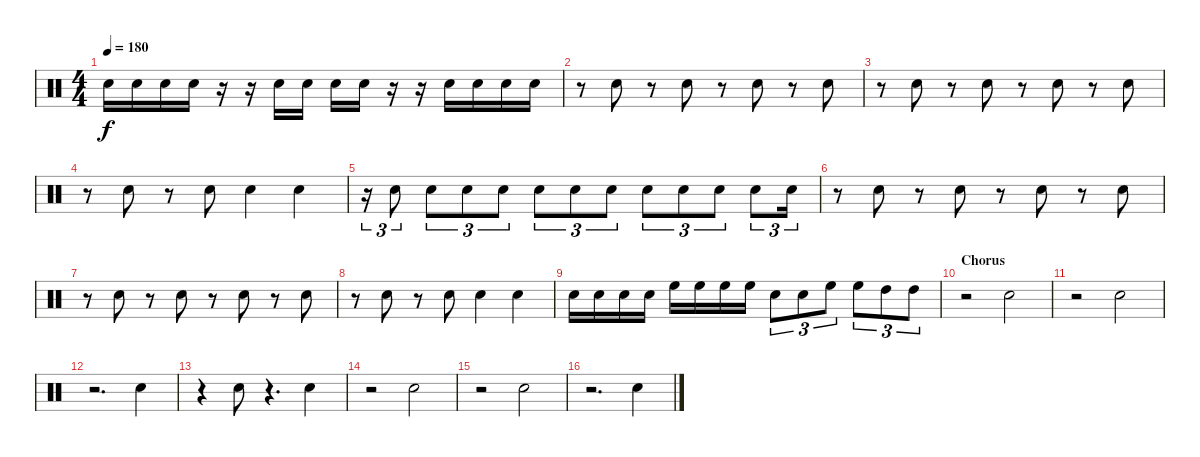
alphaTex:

\track "" {instrument percussion}
\staff {score}
\articulation defaults
\ts (4 4)
\tempo 180
\clef neutral
\ks c "Electric Snare (hit)".16{dy f} "Electric Snare (hit)".16 "Electric Snare (hit)".16 "Electric Snare (hit)".16
r.16 r.16 "Electric Snare (hit)".16 "Electric Snare (hit)".16 "Electric Snare (hit)".16 "Electric Snare (hit)".16 r.16 r.16 "Electric Snare (hit)".16 "Electric Snare (hit)".16 "Electric Snare (hit)".16 "Electric Snare (hit)".16 |
r.8 "Electric Snare (hit)".8 r.8 "Electric Snare (hit)".8 r.8 "Electric Snare (hit)".8 r.8 "Electric Snare (hit)".8 |
r.8 "Electric Snare (hit)".8 r.8 "Electric Snare (hit)".8 r.8 "Electric Snare (hit)".8 r.8 "Electric Snare (hit)".8 |
r.8 "Electric Snare (hit)".8 r.8 "Electric Snare (hit)".8 "Electric Snare (hit)".4 "Electric Snare (hit)".4 |
r.16{tu (3 2)} "Electric Snare (hit)".8{tu (3 2)} "Electric Snare (hit)".8{tu (3 2)} "Electric Snare (hit)".8{tu (3 2)} "Electric Snare (hit)".8{tu (3 2)} "Electric Snare (hit)".8{tu (3 2)} "Electric Snare (hit)".8{tu (3 2)} "Electric Snare (hit)".8{tu (3 2)} "Electric Snare (hit)".8{tu (3 2)} "Electric Snare (hit)".8{tu (3 2)} "Electric Snare (hit)".8{tu (3 2)} "Electric Snare (hit)".8{tu (3 2)} "Electric Snare (hit)".16{tu (3 2)} |
r.8 "Electric Snare (hit)".8 r.8 "Electric Snare (hit)".8 r.8 "Electric Snare (hit)".8 r.8 "Electric Snare (hit)".8 |
r.8 "Electric Snare (hit)".8 r.8 "Electric Snare (hit)".8 r.8 "Electric Snare (hit)".8 r.8 "Electric Snare (hit)".8 |
r.8 "Electric Snare (hit)".8 r.8 "Electric Snare (hit)".8 "Electric Snare (hit)".4 "Electric Snare (hit)".4 |
"Electric Snare (hit)".16 "Electric Snare (hit)".16 "Electric Snare (hit)".16 "Electric Snare (hit)".16 "High Floor Tom (hit)".16 "High Floor Tom (hit)".16 "High Floor Tom (hit)".16 "High Floor Tom (hit)".16 "Electric Snare (hit)".8{tu (3 2)} "Electric Snare (hit)".8{tu (3 2)} "High Floor Tom (hit)".8{tu (3 2)} "High Floor Tom (hit)".8{tu (3 2)} "High Tom (hit)".8{tu (3 2)} "High Tom (hit)".8{tu (3 2)} |
\section ("" "Chorus")
r.2 "Electric Snare (hit)".2 |
r.2 "Electric Snare (hit)".2 |
r.2{d} "Electric Snare (hit)".4 |
r.4 "Electric Snare (hit)".8 r.4{d} "Electric Snare (hit)".4 |
r.2 "Electric Snare (hit)".2 |
r.2 "Electric Snare (hit)".2 |
r.2{d} "Electric Snare (hit)".4
